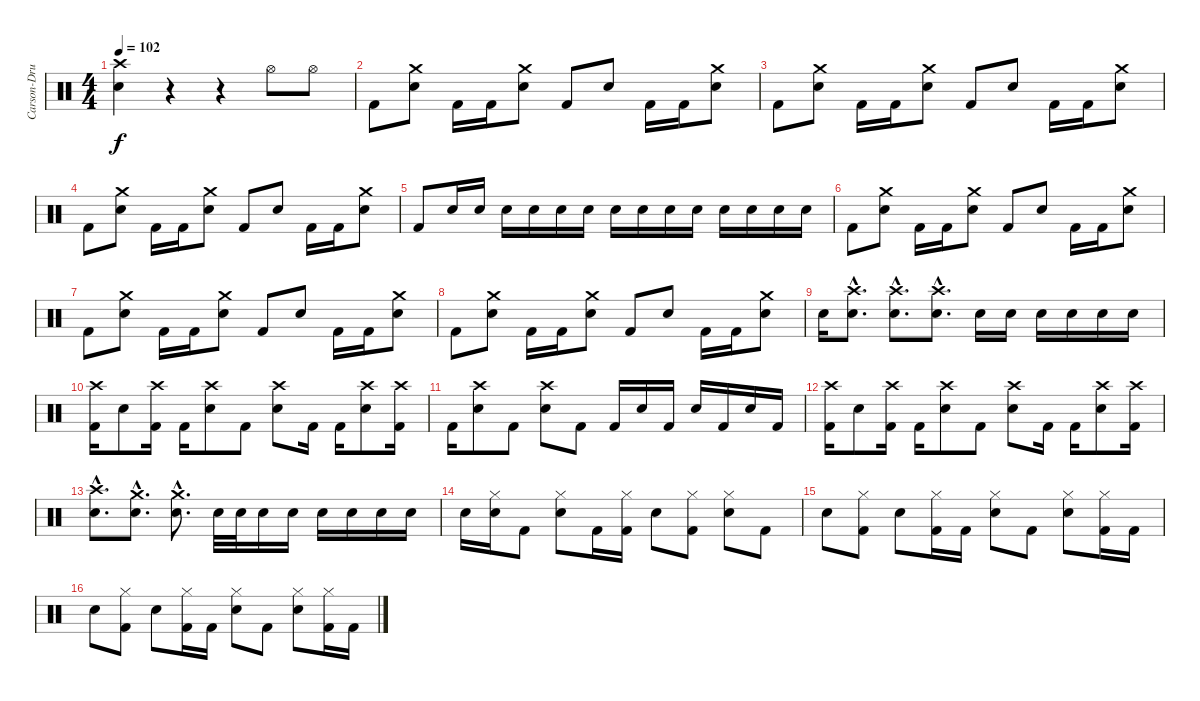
\track ("Carson-Drums" "Carson-Dru") {instrument percussion}
\staff {score}
\articulation defaults
\ts (4 4)
\tempo 102
\clef neutral
\ks c
("Snare (hit) 2" "Crash high (hit)").4{dy f} r.4 r.4 "Hi-Hat (open)".8 "Hi-Hat (open)".8 |
"Kick (hit) 2".8 ("Crash medium (hit)" "Snare (hit) 2").8 "Kick (hit) 2".16 "Kick (hit) 2".16 ("Crash medium (hit)" "Snare (hit) 2").8 "Kick (hit) 2".8 "Snare (hit) 2".8 "Kick (hit) 2".16 "Kick (hit) 2".16 ("Crash medium (hit)" "Snare (hit) 2").8 |
"Kick (hit) 2".8 ("Crash medium (hit)" "Snare (hit) 2").8 "Kick (hit) 2".16 "Kick (hit) 2".16 ("Crash medium (hit)" "Snare (hit) 2").8 "Kick (hit) 2".8 "Snare (hit) 2".8 "Kick (hit) 2".16 "Kick (hit) 2".16 ("Crash medium (hit)" "Snare (hit) 2").8 |
"Kick (hit) 2".8 ("Crash medium (hit)" "Snare (hit) 2").8 "Kick (hit) 2".16 "Kick (hit) 2".16 ("Crash medium (hit)" "Snare (hit) 2").8 "Kick (hit) 2".8 "Snare (hit) 2".8 "Kick (hit) 2".16 "Kick (hit) 2".16 ("Crash medium (hit)" "Snare (hit) 2").8 |
"Kick (hit) 2".8 "Snare (hit) 2".16 "Snare (hit) 2".16 "Snare (hit) 2".16 "Snare (hit) 2".16 "Snare (hit) 2".16 "Snare (hit) 2".16 "Snare (hit) 2".16 "Snare (hit) 2".16 "Snare (hit) 2".16 "Snare (hit) 2".16 "Snare (hit) 2".16 "Snare (hit) 2".16 "Snare (hit) 2".16 "Snare (hit) 2".16 |
"Kick (hit) 2".8 ("Crash medium (hit)" "Snare (hit) 2").8 "Kick (hit) 2".16 "Kick (hit) 2".16 ("Crash medium (hit)" "Snare (hit) 2").8 "Kick (hit) 2".8 "Snare (hit) 2".8 "Kick (hit) 2".16 "Kick (hit) 2".16 ("Crash medium (hit)" "Snare (hit) 2").8 |
"Kick (hit) 2".8 ("Crash medium (hit)" "Snare (hit) 2").8 "Kick (hit) 2".16 "Kick (hit) 2".16 ("Crash medium (hit)" "Snare (hit) 2").8 "Kick (hit) 2".8 "Snare (hit) 2".8 "Kick (hit) 2".16 "Kick (hit) 2".16 ("Crash medium (hit)" "Snare (hit) 2").8 |
"Kick (hit) 2".8 ("Crash medium (hit)" "Snare (hit) 2").8 "Kick (hit) 2".16 "Kick (hit) 2".16 ("Crash medium (hit)" "Snare (hit) 2").8 "Kick (hit) 2".8 "Snare (hit) 2".8 "Kick (hit) 2".16 "Kick (hit) 2".16 ("Crash medium (hit)" "Snare (hit) 2").8 |
"Snare (hit) 2".16 ("Crash high (hit)"{hac} "Snare (hit) 2"{hac}).8{d} ("Crash high (hit)"{hac} "Snare (hit) 2"{hac}).8{d} ("Crash high (hit)"{hac} "Snare (hit) 2"{hac}).8{d} "Snare (hit) 2".16 "Snare (hit) 2".16 "Snare (hit) 2".16 "Snare (hit) 2".16 "Snare (hit) 2".16 "Snare (hit) 2".16 |
("Kick (hit) 2" "Crash high (hit)").16 "Snare (hit) 2".8 ("Kick (hit) 2" "Crash high (hit)").16 "Kick (hit) 2".16 ("Snare (hit) 2" "Crash high (hit)").8 "Kick (hit) 2".8 ("Snare (hit) 2" "Crash high (hit)").8 "Kick (hit) 2".16 "Kick (hit) 2".16 ("Snare (hit) 2" "Crash high (hit)").8 ("Kick (hit) 2" "Crash high (hit)").16 |
"Kick (hit) 2".16 ("Snare (hit) 2" "Crash high (hit)").8 "Kick (hit) 2".8 ("Snare (hit) 2" "Crash high (hit)").8 "Kick (hit) 2".8 "Kick (hit) 2".16 "Snare (hit) 2".16 "Kick (hit) 2".16 "Snare (hit) 2".16 "Kick (hit) 2".16 "Snare (hit) 2".16 "Kick (hit) 2".16 |
("Kick (hit) 2" "Crash high (hit)").16 "Snare (hit) 2".8 ("Kick (hit) 2" "Crash high (hit)").16 "Kick (hit) 2".16 ("Snare (hit) 2" "Crash high (hit)").8 "Kick (hit) 2".8 ("Snare (hit) 2" "Crash high (hit)").8 "Kick (hit) 2".16 "Kick (hit) 2".16 ("Snare (hit) 2" "Crash high (hit)").8 ("Kick (hit) 2" "Crash high (hit)").16 |
("Snare (hit) 2"{hac} "Crash high (hit)"{hac}).8{d} ("Snare (hit) 2"{hac} "Crash medium (hit)"{hac}).8{d} ("Snare (hit) 2"{hac} "Crash medium (hit)"{hac}).8{d} "Snare (hit) 2".32 "Snare (hit) 2".32 "Snare (hit) 2".16 "Snare (hit) 2".16 "Snare (hit) 2".16 "Snare (hit) 2".16 "Snare (hit) 2".16 "Snare (hit) 2".16 |
"Snare (hit) 2".16 ("Hi-Hat (closed)" "Snare (hit) 2").16 "Kick (hit) 2".8 ("Hi-Hat (closed)" "Snare (hit) 2").8 "Kick (hit) 2".16 ("Hi-Hat (closed)" "Kick (hit) 2").16 "Snare (hit) 2".8 ("Hi-Hat (closed)" "Kick (hit) 2").8 ("Hi-Hat (closed)" "Snare (hit) 2").8 "Kick (hit) 2".8 |
"Snare (hit) 2".8 ("Hi-Hat (closed)" "Kick (hit) 2").8 "Snare (hit) 2".8 ("Hi-Hat (closed)" "Kick (hit) 2").16 "Kick (hit) 2".16 ("Hi-Hat (closed)" "Snare (hit) 2").8 "Kick (hit) 2".8 ("Hi-Hat (closed)" "Snare (hit) 2").8 ("Hi-Hat (closed)" "Kick (hit) 2").16 "Kick (hit) 2".16 |
"Snare (hit) 2".8 ("Hi-Hat (closed)" "Kick (hit) 2").8 "Snare (hit) 2".8 ("Hi-Hat (closed)" "Kick (hit) 2").16 "Kick (hit) 2".16 ("Hi-Hat (closed)" "Snare (hit) 2").8 "Kick (hit) 2".8 ("Hi-Hat (closed)" "Snare (hit) 2").8 ("Hi-Hat (closed)" "Kick (hit) 2").16 "Kick (hit) 2".16
